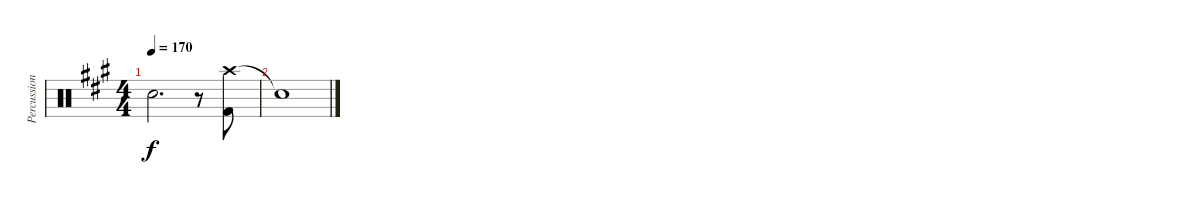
\track ("Percussion" "Percussion") {instrument percussion}
\staff {score}
\articulation defaults
\ts (4 4)
\tempo 170
\clef neutral
\ks a "Snare (hit)"{t}.2{d dy f}
r.8 ("Crash high (hit)" "Kick (hit) 2").8 |
"Snare (hit)"{t}.1
